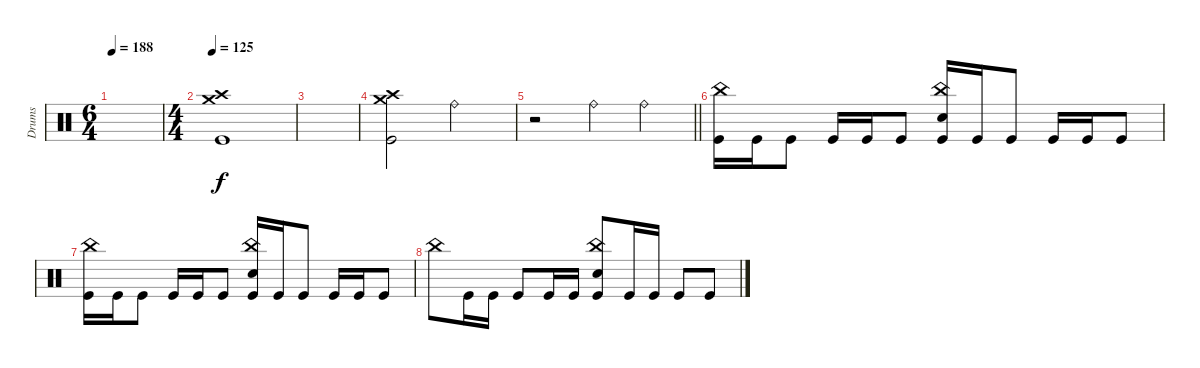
\track ("Drums" "Drums") {instrument percussion}
\staff
\articulation defaults
\ts (6 4)
\tempo 188
\clef neutral
\ks c
|
\ts (4 4)
\tempo 125
("Crash high (hit)" "Crash medium (hit)" "Kick (hit)").1 |
|
("Crash high (hit)" "Crash medium (hit)" "Kick (hit)").2 "Ride (bell)".2 |
\barLineRight lightlight
r.2 "Ride (bell)".4 "Ride (bell)".4 |
\section ("" "")
("China (hit)" "Kick (hit)").16 "Kick (hit)".16 "Kick (hit)".8 "Kick (hit)".16 "Kick (hit)".16 "Kick (hit)".8 ("China (hit)" "Electric Snare (hit)" "Kick (hit)").16 "Kick (hit)".16 "Kick (hit)".8 "Kick (hit)".16 "Kick (hit)".16 "Kick (hit)".8 |
("China (hit)" "Kick (hit)").16 "Kick (hit)".16 "Kick (hit)".8 "Kick (hit)".16 "Kick (hit)".16 "Kick (hit)".8 ("China (hit)" "Electric Snare (hit)" "Kick (hit)").16 "Kick (hit)".16 "Kick (hit)".8 "Kick (hit)".16 "Kick (hit)".16 "Kick (hit)".8 |
"China (hit)".8 "Kick (hit)".16 "Kick (hit)".16 "Kick (hit)".8 "Kick (hit)".16 "Kick (hit)".16 ("China (hit)" "Electric Snare (hit)" "Kick (hit)").8 "Kick (hit)".16 "Kick (hit)".16 "Kick (hit)".8 "Kick (hit)".8
